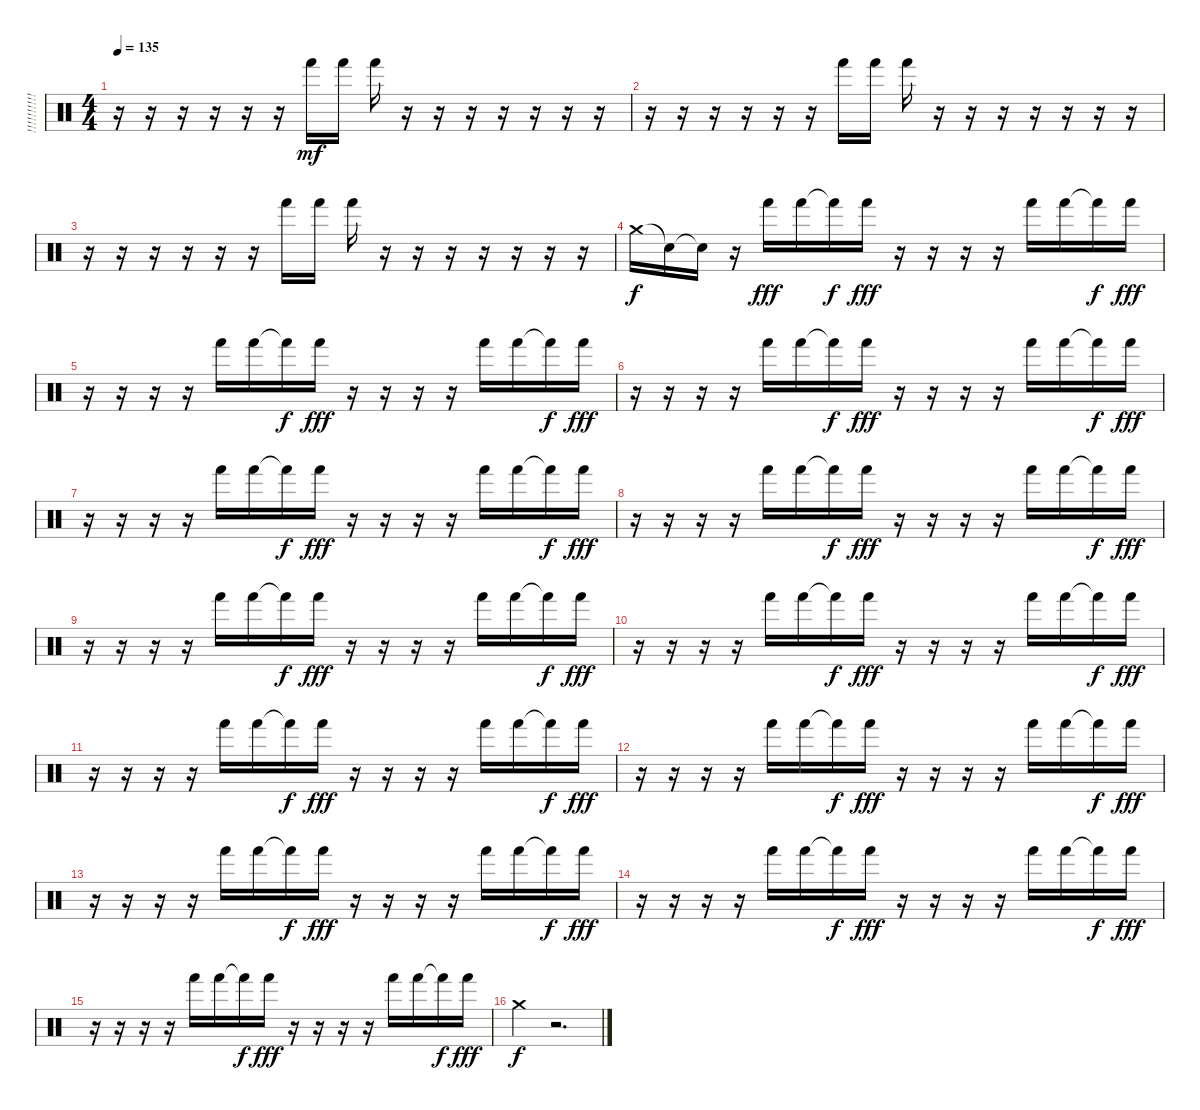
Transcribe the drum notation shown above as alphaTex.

\track ("!!!!!!!!!!!!!" "!!!!!!!!!!") {instrument percussion}
\staff {score}
\articulation defaults
\ts (4 4)
\tempo 135
\clef neutral
\ks c
r.16{dy mf} r.16 r.16 r.16 r.16 r.16 "Hand (hit)".16 "Hand (hit)".16 "Hand (hit)".16 r.16 r.16 r.16 r.16 r.16 r.16 r.16 |
r.16 r.16 r.16 r.16 r.16 r.16 "Hand (hit)".16 "Hand (hit)".16 "Hand (hit)".16 r.16 r.16 r.16 r.16 r.16 r.16 r.16 |
r.16 r.16 r.16 r.16 r.16 r.16 "Hand (hit)".16 "Hand (hit)".16 "Hand (hit)".16 r.16 r.16 r.16 r.16 r.16 r.16 r.16 |
"Crash medium (hit)".16{dy f} "Snare (hit)"{t}.16 "Snare (hit)"{t}.16 r.16 "Hand (hit)".16{dy fff} "Hand (hit)".16 "Hand (hit)"{t}.16{dy f} "Hand (hit)".16{dy fff} r.16 r.16 r.16 r.16 "Hand (hit)".16 "Hand (hit)".16 "Hand (hit)"{t}.16{dy f} "Hand (hit)".16{dy fff} |
r.16 r.16 r.16 r.16 "Hand (hit)".16 "Hand (hit)".16 "Hand (hit)"{t}.16{dy f} "Hand (hit)".16{dy fff} r.16 r.16 r.16 r.16 "Hand (hit)".16 "Hand (hit)".16 "Hand (hit)"{t}.16{dy f} "Hand (hit)".16{dy fff} |
r.16 r.16 r.16 r.16 "Hand (hit)".16 "Hand (hit)".16 "Hand (hit)"{t}.16{dy f} "Hand (hit)".16{dy fff} r.16 r.16 r.16 r.16 "Hand (hit)".16 "Hand (hit)".16 "Hand (hit)"{t}.16{dy f} "Hand (hit)".16{dy fff} |
r.16 r.16 r.16 r.16 "Hand (hit)".16 "Hand (hit)".16 "Hand (hit)"{t}.16{dy f} "Hand (hit)".16{dy fff} r.16 r.16 r.16 r.16 "Hand (hit)".16 "Hand (hit)".16 "Hand (hit)"{t}.16{dy f} "Hand (hit)".16{dy fff} |
r.16 r.16 r.16 r.16 "Hand (hit)".16 "Hand (hit)".16 "Hand (hit)"{t}.16{dy f} "Hand (hit)".16{dy fff} r.16 r.16 r.16 r.16 "Hand (hit)".16 "Hand (hit)".16 "Hand (hit)"{t}.16{dy f} "Hand (hit)".16{dy fff} |
r.16 r.16 r.16 r.16 "Hand (hit)".16 "Hand (hit)".16 "Hand (hit)"{t}.16{dy f} "Hand (hit)".16{dy fff} r.16 r.16 r.16 r.16 "Hand (hit)".16 "Hand (hit)".16 "Hand (hit)"{t}.16{dy f} "Hand (hit)".16{dy fff} |
r.16 r.16 r.16 r.16 "Hand (hit)".16 "Hand (hit)".16 "Hand (hit)"{t}.16{dy f} "Hand (hit)".16{dy fff} r.16 r.16 r.16 r.16 "Hand (hit)".16 "Hand (hit)".16 "Hand (hit)"{t}.16{dy f} "Hand (hit)".16{dy fff} |
r.16 r.16 r.16 r.16 "Hand (hit)".16 "Hand (hit)".16 "Hand (hit)"{t}.16{dy f} "Hand (hit)".16{dy fff} r.16 r.16 r.16 r.16 "Hand (hit)".16 "Hand (hit)".16 "Hand (hit)"{t}.16{dy f} "Hand (hit)".16{dy fff} |
r.16 r.16 r.16 r.16 "Hand (hit)".16 "Hand (hit)".16 "Hand (hit)"{t}.16{dy f} "Hand (hit)".16{dy fff} r.16 r.16 r.16 r.16 "Hand (hit)".16 "Hand (hit)".16 "Hand (hit)"{t}.16{dy f} "Hand (hit)".16{dy fff} |
r.16 r.16 r.16 r.16 "Hand (hit)".16 "Hand (hit)".16 "Hand (hit)"{t}.16{dy f} "Hand (hit)".16{dy fff} r.16 r.16 r.16 r.16 "Hand (hit)".16 "Hand (hit)".16 "Hand (hit)"{t}.16{dy f} "Hand (hit)".16{dy fff} |
r.16 r.16 r.16 r.16 "Hand (hit)".16 "Hand (hit)".16 "Hand (hit)"{t}.16{dy f} "Hand (hit)".16{dy fff} r.16 r.16 r.16 r.16 "Hand (hit)".16 "Hand (hit)".16 "Hand (hit)"{t}.16{dy f} "Hand (hit)".16{dy fff} |
r.16 r.16 r.16 r.16 "Hand (hit)".16 "Hand (hit)".16 "Hand (hit)"{t}.16{dy f} "Hand (hit)".16{dy fff} r.16 r.16 r.16 r.16 "Hand (hit)".16 "Hand (hit)".16 "Hand (hit)"{t}.16{dy f} "Hand (hit)".16{dy fff} |
"Crash medium (hit)".4{dy f} r.2{d}
